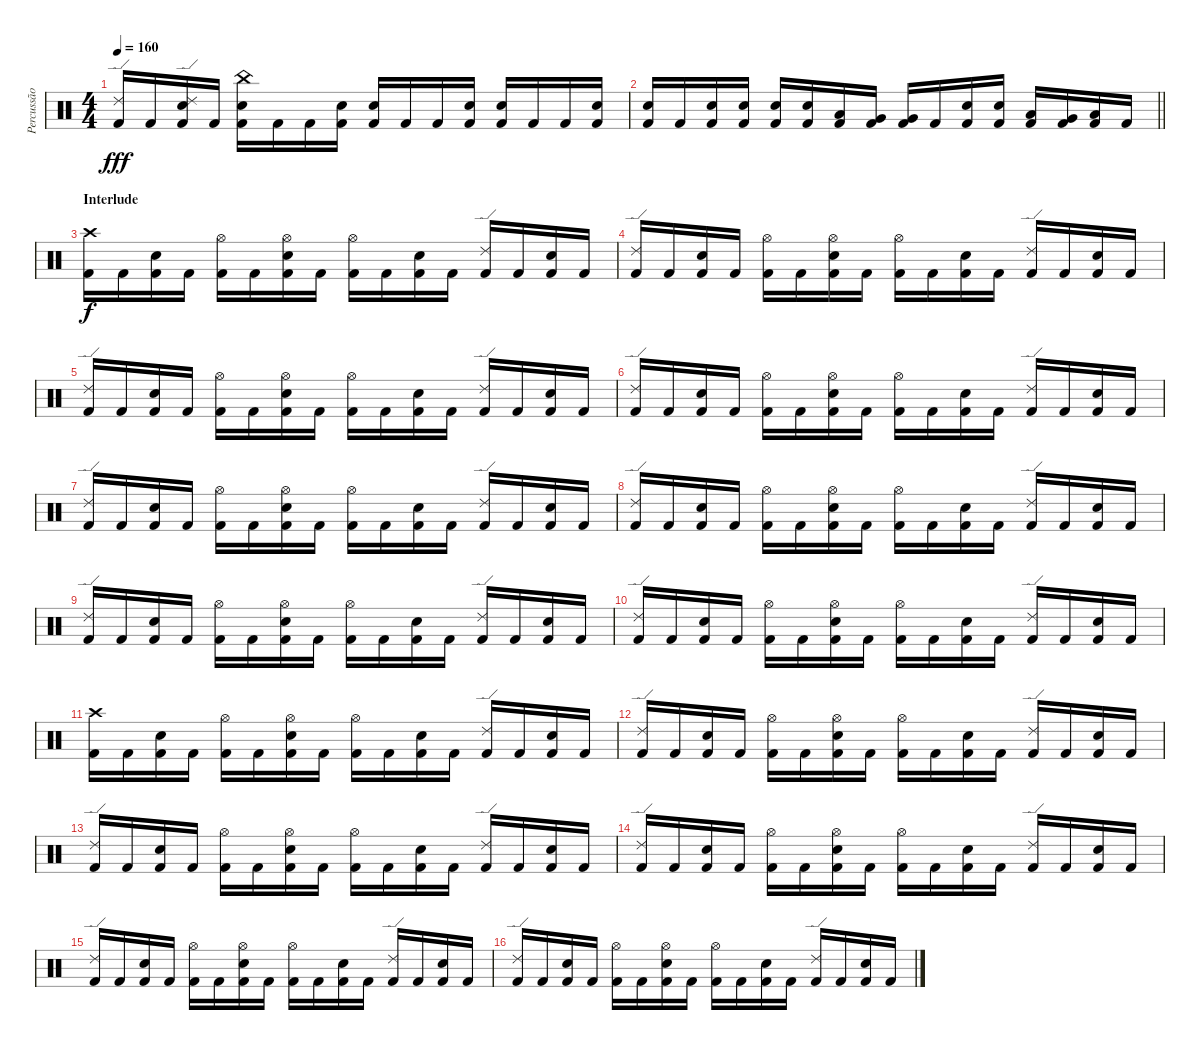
\track ("Percussão" "Percussão") {instrument percussion}
\staff {score}
\articulation defaults
\ts (4 4)
\tempo 160
\clef neutral
\ks c
("Ride (edge) 2" "Kick (hit) 2").16{dy fff} "Kick (hit) 2".16 ("Ride (edge) 2" "Electric Snare (hit)" "Kick (hit) 2").16 "Kick (hit) 2".16 ("China (hit)" "Electric Snare (hit)" "Kick (hit) 2").16 "Kick (hit) 2".16 "Kick (hit) 2".16 ("Electric Snare (hit)" "Kick (hit) 2").16 ("Electric Snare (hit)" "Kick (hit) 2").16 "Kick (hit) 2".16 "Kick (hit) 2".16 ("Electric Snare (hit)" "Kick (hit) 2").16 ("Electric Snare (hit)" "Kick (hit) 2").16 "Kick (hit) 2".16 "Kick (hit) 2".16 ("Electric Snare (hit)" "Kick (hit) 2").16 |
\barLineRight lightlight
("Electric Snare (hit)" "Kick (hit) 2").16 "Kick (hit) 2".16 ("Electric Snare (hit)" "Kick (hit) 2").16 ("Electric Snare (hit)" "Kick (hit) 2").16 ("Electric Snare (hit)" "Kick (hit) 2").16 ("Electric Snare (hit)" "Kick (hit) 2").16 ("Low Tom (hit)" "Kick (hit) 2").16 ("Very Low Tom (hit)" "Kick (hit) 2").16 ("Very Low Tom (hit)" "Kick (hit) 2").16 "Kick (hit) 2".16 ("Electric Snare (hit)" "Kick (hit) 2").16 ("Electric Snare (hit)" "Kick (hit) 2").16 ("Low Tom (hit)" "Kick (hit) 2").16 ("Very Low Tom (hit)" "Kick (hit) 2").16 ("Low Floor Tom (hit)" "Kick (hit) 2").16 "Kick (hit) 2".16 |
\section ("" "Interlude")
("Crash high (hit)" "Kick (hit) 2").16{dy f} "Kick (hit) 2".16 ("Electric Snare (hit)" "Kick (hit) 2").16 "Kick (hit) 2".16 ("Hi-Hat (open)" "Kick (hit) 2").16 "Kick (hit) 2".16 ("Hi-Hat (open)" "Electric Snare (hit)" "Kick (hit) 2").16 "Kick (hit) 2".16 ("Hi-Hat (open)" "Kick (hit) 2").16 "Kick (hit) 2".16 ("Electric Snare (hit)" "Kick (hit) 2").16 "Kick (hit) 2".16 ("Ride (edge) 2" "Kick (hit) 2").16 "Kick (hit) 2".16 ("Electric Snare (hit)" "Kick (hit) 2").16 "Kick (hit) 2".16 |
("Ride (edge) 2" "Kick (hit) 2").16 "Kick (hit) 2".16 ("Electric Snare (hit)" "Kick (hit) 2").16 "Kick (hit) 2".16 ("Hi-Hat (open)" "Kick (hit) 2").16 "Kick (hit) 2".16 ("Hi-Hat (open)" "Electric Snare (hit)" "Kick (hit) 2").16 "Kick (hit) 2".16 ("Hi-Hat (open)" "Kick (hit) 2").16 "Kick (hit) 2".16 ("Electric Snare (hit)" "Kick (hit) 2").16 "Kick (hit) 2".16 ("Ride (edge) 2" "Kick (hit) 2").16 "Kick (hit) 2".16 ("Electric Snare (hit)" "Kick (hit) 2").16 "Kick (hit) 2".16 |
("Ride (edge) 2" "Kick (hit) 2").16 "Kick (hit) 2".16 ("Electric Snare (hit)" "Kick (hit) 2").16 "Kick (hit) 2".16 ("Hi-Hat (open)" "Kick (hit) 2").16 "Kick (hit) 2".16 ("Hi-Hat (open)" "Electric Snare (hit)" "Kick (hit) 2").16 "Kick (hit) 2".16 ("Hi-Hat (open)" "Kick (hit) 2").16 "Kick (hit) 2".16 ("Electric Snare (hit)" "Kick (hit) 2").16 "Kick (hit) 2".16 ("Ride (edge) 2" "Kick (hit) 2").16 "Kick (hit) 2".16 ("Electric Snare (hit)" "Kick (hit) 2").16 "Kick (hit) 2".16 |
("Ride (edge) 2" "Kick (hit) 2").16 "Kick (hit) 2".16 ("Electric Snare (hit)" "Kick (hit) 2").16 "Kick (hit) 2".16 ("Hi-Hat (open)" "Kick (hit) 2").16 "Kick (hit) 2".16 ("Hi-Hat (open)" "Electric Snare (hit)" "Kick (hit) 2").16 "Kick (hit) 2".16 ("Hi-Hat (open)" "Kick (hit) 2").16 "Kick (hit) 2".16 ("Electric Snare (hit)" "Kick (hit) 2").16 "Kick (hit) 2".16 ("Ride (edge) 2" "Kick (hit) 2").16 "Kick (hit) 2".16 ("Electric Snare (hit)" "Kick (hit) 2").16 "Kick (hit) 2".16 |
("Ride (edge) 2" "Kick (hit) 2").16 "Kick (hit) 2".16 ("Electric Snare (hit)" "Kick (hit) 2").16 "Kick (hit) 2".16 ("Hi-Hat (open)" "Kick (hit) 2").16 "Kick (hit) 2".16 ("Hi-Hat (open)" "Electric Snare (hit)" "Kick (hit) 2").16 "Kick (hit) 2".16 ("Hi-Hat (open)" "Kick (hit) 2").16 "Kick (hit) 2".16 ("Electric Snare (hit)" "Kick (hit) 2").16 "Kick (hit) 2".16 ("Ride (edge) 2" "Kick (hit) 2").16 "Kick (hit) 2".16 ("Electric Snare (hit)" "Kick (hit) 2").16 "Kick (hit) 2".16 |
("Ride (edge) 2" "Kick (hit) 2").16 "Kick (hit) 2".16 ("Electric Snare (hit)" "Kick (hit) 2").16 "Kick (hit) 2".16 ("Hi-Hat (open)" "Kick (hit) 2").16 "Kick (hit) 2".16 ("Hi-Hat (open)" "Electric Snare (hit)" "Kick (hit) 2").16 "Kick (hit) 2".16 ("Hi-Hat (open)" "Kick (hit) 2").16 "Kick (hit) 2".16 ("Electric Snare (hit)" "Kick (hit) 2").16 "Kick (hit) 2".16 ("Ride (edge) 2" "Kick (hit) 2").16 "Kick (hit) 2".16 ("Electric Snare (hit)" "Kick (hit) 2").16 "Kick (hit) 2".16 |
("Ride (edge) 2" "Kick (hit) 2").16 "Kick (hit) 2".16 ("Electric Snare (hit)" "Kick (hit) 2").16 "Kick (hit) 2".16 ("Hi-Hat (open)" "Kick (hit) 2").16 "Kick (hit) 2".16 ("Hi-Hat (open)" "Electric Snare (hit)" "Kick (hit) 2").16 "Kick (hit) 2".16 ("Hi-Hat (open)" "Kick (hit) 2").16 "Kick (hit) 2".16 ("Electric Snare (hit)" "Kick (hit) 2").16 "Kick (hit) 2".16 ("Ride (edge) 2" "Kick (hit) 2").16 "Kick (hit) 2".16 ("Electric Snare (hit)" "Kick (hit) 2").16 "Kick (hit) 2".16 |
("Ride (edge) 2" "Kick (hit) 2").16 "Kick (hit) 2".16 ("Electric Snare (hit)" "Kick (hit) 2").16 "Kick (hit) 2".16 ("Hi-Hat (open)" "Kick (hit) 2").16 "Kick (hit) 2".16 ("Hi-Hat (open)" "Electric Snare (hit)" "Kick (hit) 2").16 "Kick (hit) 2".16 ("Hi-Hat (open)" "Kick (hit) 2").16 "Kick (hit) 2".16 ("Electric Snare (hit)" "Kick (hit) 2").16 "Kick (hit) 2".16 ("Ride (edge) 2" "Kick (hit) 2").16 "Kick (hit) 2".16 ("Electric Snare (hit)" "Kick (hit) 2").16 "Kick (hit) 2".16 |
("Crash high (hit)" "Kick (hit) 2").16 "Kick (hit) 2".16 ("Electric Snare (hit)" "Kick (hit) 2").16 "Kick (hit) 2".16 ("Hi-Hat (open)" "Kick (hit) 2").16 "Kick (hit) 2".16 ("Hi-Hat (open)" "Electric Snare (hit)" "Kick (hit) 2").16 "Kick (hit) 2".16 ("Hi-Hat (open)" "Kick (hit) 2").16 "Kick (hit) 2".16 ("Electric Snare (hit)" "Kick (hit) 2").16 "Kick (hit) 2".16 ("Ride (edge) 2" "Kick (hit) 2").16 "Kick (hit) 2".16 ("Electric Snare (hit)" "Kick (hit) 2").16 "Kick (hit) 2".16 |
("Ride (edge) 2" "Kick (hit) 2").16 "Kick (hit) 2".16 ("Electric Snare (hit)" "Kick (hit) 2").16 "Kick (hit) 2".16 ("Hi-Hat (open)" "Kick (hit) 2").16 "Kick (hit) 2".16 ("Hi-Hat (open)" "Electric Snare (hit)" "Kick (hit) 2").16 "Kick (hit) 2".16 ("Hi-Hat (open)" "Kick (hit) 2").16 "Kick (hit) 2".16 ("Electric Snare (hit)" "Kick (hit) 2").16 "Kick (hit) 2".16 ("Ride (edge) 2" "Kick (hit) 2").16 "Kick (hit) 2".16 ("Electric Snare (hit)" "Kick (hit) 2").16 "Kick (hit) 2".16 |
("Ride (edge) 2" "Kick (hit) 2").16 "Kick (hit) 2".16 ("Electric Snare (hit)" "Kick (hit) 2").16 "Kick (hit) 2".16 ("Hi-Hat (open)" "Kick (hit) 2").16 "Kick (hit) 2".16 ("Hi-Hat (open)" "Electric Snare (hit)" "Kick (hit) 2").16 "Kick (hit) 2".16 ("Hi-Hat (open)" "Kick (hit) 2").16 "Kick (hit) 2".16 ("Electric Snare (hit)" "Kick (hit) 2").16 "Kick (hit) 2".16 ("Ride (edge) 2" "Kick (hit) 2").16 "Kick (hit) 2".16 ("Electric Snare (hit)" "Kick (hit) 2").16 "Kick (hit) 2".16 |
("Ride (edge) 2" "Kick (hit) 2").16 "Kick (hit) 2".16 ("Electric Snare (hit)" "Kick (hit) 2").16 "Kick (hit) 2".16 ("Hi-Hat (open)" "Kick (hit) 2").16 "Kick (hit) 2".16 ("Hi-Hat (open)" "Electric Snare (hit)" "Kick (hit) 2").16 "Kick (hit) 2".16 ("Hi-Hat (open)" "Kick (hit) 2").16 "Kick (hit) 2".16 ("Electric Snare (hit)" "Kick (hit) 2").16 "Kick (hit) 2".16 ("Ride (edge) 2" "Kick (hit) 2").16 "Kick (hit) 2".16 ("Electric Snare (hit)" "Kick (hit) 2").16 "Kick (hit) 2".16 |
("Ride (edge) 2" "Kick (hit) 2").16 "Kick (hit) 2".16 ("Electric Snare (hit)" "Kick (hit) 2").16 "Kick (hit) 2".16 ("Hi-Hat (open)" "Kick (hit) 2").16 "Kick (hit) 2".16 ("Hi-Hat (open)" "Electric Snare (hit)" "Kick (hit) 2").16 "Kick (hit) 2".16 ("Hi-Hat (open)" "Kick (hit) 2").16 "Kick (hit) 2".16 ("Electric Snare (hit)" "Kick (hit) 2").16 "Kick (hit) 2".16 ("Ride (edge) 2" "Kick (hit) 2").16 "Kick (hit) 2".16 ("Electric Snare (hit)" "Kick (hit) 2").16 "Kick (hit) 2".16 |
("Ride (edge) 2" "Kick (hit) 2").16 "Kick (hit) 2".16 ("Electric Snare (hit)" "Kick (hit) 2").16 "Kick (hit) 2".16 ("Hi-Hat (open)" "Kick (hit) 2").16 "Kick (hit) 2".16 ("Hi-Hat (open)" "Electric Snare (hit)" "Kick (hit) 2").16 "Kick (hit) 2".16 ("Hi-Hat (open)" "Kick (hit) 2").16 "Kick (hit) 2".16 ("Electric Snare (hit)" "Kick (hit) 2").16 "Kick (hit) 2".16 ("Ride (edge) 2" "Kick (hit) 2").16 "Kick (hit) 2".16 ("Electric Snare (hit)" "Kick (hit) 2").16 "Kick (hit) 2".16
